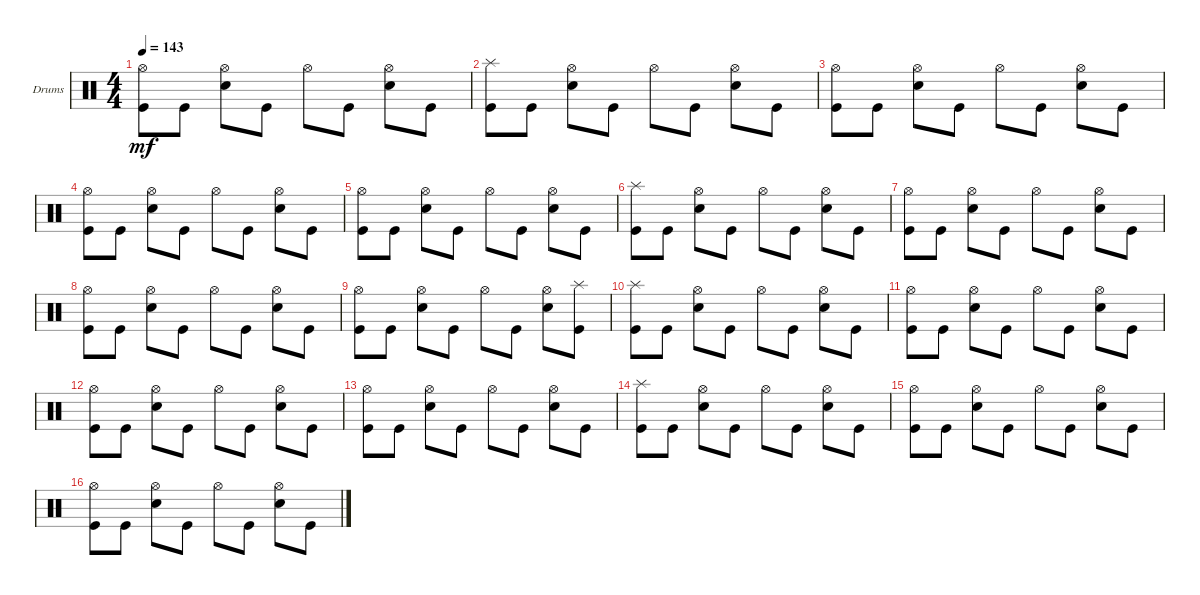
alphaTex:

\defaultSystemsLayout 4
\bracketExtendMode groupsimilarinstruments
\firstSystemTrackNameOrientation horizontal
\otherSystemsTrackNameOrientation horizontal
\track ("Drumkit" "Drums") {instrument percussion}
\staff {score}
\articulation defaults
\ts (4 4)
\tempo 143
\clef neutral
\ks c
("Kick (hit)" "Hi-Hat (open)").8{dy mf} "Kick (hit)".8 ("Snare (hit) 2" "Hi-Hat (open)").8 "Kick (hit)".8 "Hi-Hat (open)".8 "Kick (hit)".8 ("Snare (hit) 2" "Hi-Hat (open)").8 "Kick (hit)".8 |
("Splash (hit)" "Kick (hit)").8 "Kick (hit)".8 ("Snare (hit) 2" "Hi-Hat (open)").8 "Kick (hit)".8 "Hi-Hat (open)".8 "Kick (hit)".8 ("Snare (hit) 2" "Hi-Hat (open)").8 "Kick (hit)".8 |
("Kick (hit)" "Hi-Hat (open)").8 "Kick (hit)".8 ("Snare (hit) 2" "Hi-Hat (open)").8 "Kick (hit)".8 "Hi-Hat (open)".8 "Kick (hit)".8 ("Snare (hit) 2" "Hi-Hat (open)").8 "Kick (hit)".8 |
("Kick (hit)" "Hi-Hat (open)").8 "Kick (hit)".8 ("Snare (hit) 2" "Hi-Hat (open)").8 "Kick (hit)".8 "Hi-Hat (open)".8 "Kick (hit)".8 ("Snare (hit) 2" "Hi-Hat (open)").8 "Kick (hit)".8 |
("Kick (hit)" "Hi-Hat (open)").8 "Kick (hit)".8 ("Snare (hit) 2" "Hi-Hat (open)").8 "Kick (hit)".8 "Hi-Hat (open)".8 "Kick (hit)".8 ("Snare (hit) 2" "Hi-Hat (open)").8 "Kick (hit)".8 |
("Splash (hit)" "Kick (hit)").8 "Kick (hit)".8 ("Snare (hit) 2" "Hi-Hat (open)").8 "Kick (hit)".8 "Hi-Hat (open)".8 "Kick (hit)".8 ("Snare (hit) 2" "Hi-Hat (open)").8 "Kick (hit)".8 |
("Kick (hit)" "Hi-Hat (open)").8 "Kick (hit)".8 ("Snare (hit) 2" "Hi-Hat (open)").8 "Kick (hit)".8 "Hi-Hat (open)".8 "Kick (hit)".8 ("Snare (hit) 2" "Hi-Hat (open)").8 "Kick (hit)".8 |
("Kick (hit)" "Hi-Hat (open)").8 "Kick (hit)".8 ("Snare (hit) 2" "Hi-Hat (open)").8 "Kick (hit)".8 "Hi-Hat (open)".8 "Kick (hit)".8 ("Snare (hit) 2" "Hi-Hat (open)").8 "Kick (hit)".8 |
("Kick (hit)" "Hi-Hat (open)").8 "Kick (hit)".8 ("Snare (hit) 2" "Hi-Hat (open)").8 "Kick (hit)".8 "Hi-Hat (open)".8 "Kick (hit)".8 ("Snare (hit) 2" "Hi-Hat (open)").8 ("Kick (hit)" "Splash (hit)").8 |
("Splash (hit)" "Kick (hit)").8 "Kick (hit)".8 ("Snare (hit) 2" "Hi-Hat (open)").8 "Kick (hit)".8 "Hi-Hat (open)".8 "Kick (hit)".8 ("Snare (hit) 2" "Hi-Hat (open)").8 "Kick (hit)".8 |
("Kick (hit)" "Hi-Hat (open)").8 "Kick (hit)".8 ("Snare (hit) 2" "Hi-Hat (open)").8 "Kick (hit)".8 "Hi-Hat (open)".8 "Kick (hit)".8 ("Snare (hit) 2" "Hi-Hat (open)").8 "Kick (hit)".8 |
("Kick (hit)" "Hi-Hat (open)").8 "Kick (hit)".8 ("Snare (hit) 2" "Hi-Hat (open)").8 "Kick (hit)".8 "Hi-Hat (open)".8 "Kick (hit)".8 ("Snare (hit) 2" "Hi-Hat (open)").8 "Kick (hit)".8 |
("Kick (hit)" "Hi-Hat (open)").8 "Kick (hit)".8 ("Snare (hit) 2" "Hi-Hat (open)").8 "Kick (hit)".8 "Hi-Hat (open)".8 "Kick (hit)".8 ("Snare (hit) 2" "Hi-Hat (open)").8 "Kick (hit)".8 |
("Splash (hit)" "Kick (hit)").8 "Kick (hit)".8 ("Snare (hit) 2" "Hi-Hat (open)").8 "Kick (hit)".8 "Hi-Hat (open)".8 "Kick (hit)".8 ("Snare (hit) 2" "Hi-Hat (open)").8 "Kick (hit)".8 |
("Kick (hit)" "Hi-Hat (open)").8 "Kick (hit)".8 ("Snare (hit) 2" "Hi-Hat (open)").8 "Kick (hit)".8 "Hi-Hat (open)".8 "Kick (hit)".8 ("Snare (hit) 2" "Hi-Hat (open)").8 "Kick (hit)".8 |
("Kick (hit)" "Hi-Hat (open)").8 "Kick (hit)".8 ("Snare (hit) 2" "Hi-Hat (open)").8 "Kick (hit)".8 "Hi-Hat (open)".8 "Kick (hit)".8 ("Snare (hit) 2" "Hi-Hat (open)").8 "Kick (hit)".8
